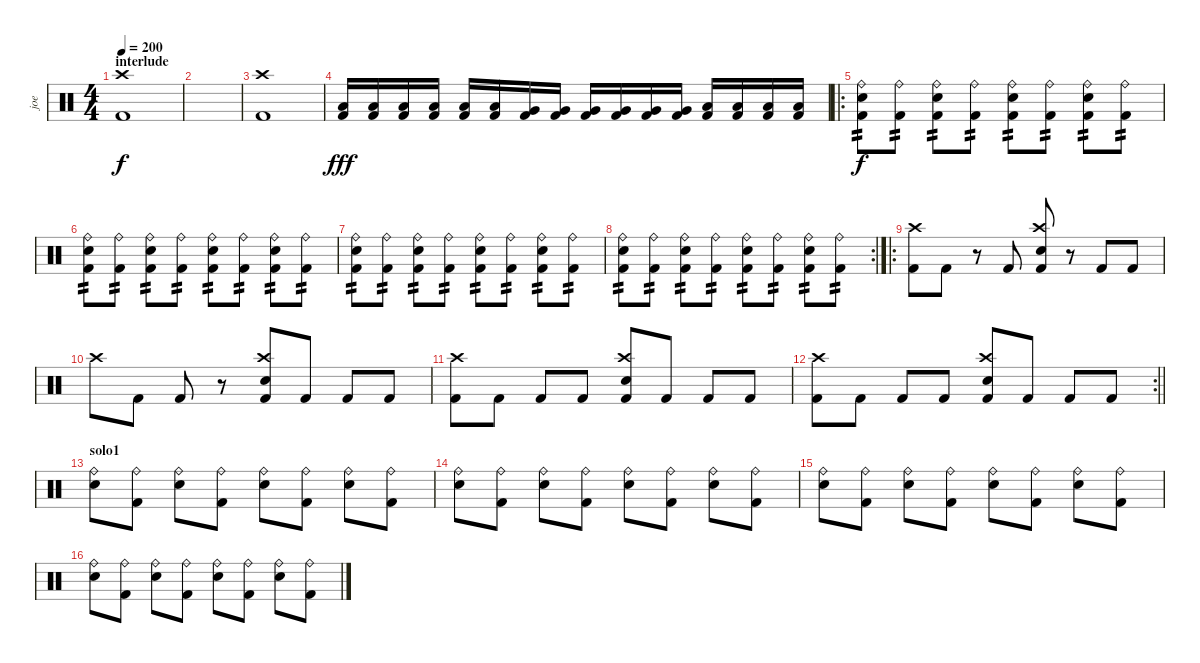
\track ("joe" "joe") {instrument percussion}
\staff {score}
\articulation defaults
\ts (4 4)
\section ("" "interlude")
\tempo 200
\clef neutral
\ks c
("Kick (hit) 2" "Crash high (hit)").1{dy f} |
|
("Crash high (hit)" "Kick (hit) 2").1 |
("Low Tom (hit)" "Kick (hit) 2").16{dy fff} ("Low Tom (hit)" "Kick (hit) 2").16 ("Low Tom (hit)" "Kick (hit) 2").16 ("Low Tom (hit)" "Kick (hit) 2").16 ("Low Tom (hit)" "Kick (hit) 2").16 ("Low Tom (hit)" "Kick (hit) 2").16 ("Very Low Tom (hit)" "Kick (hit) 2").16 ("Very Low Tom (hit)" "Kick (hit) 2").16 ("Very Low Tom (hit)" "Kick (hit) 2").16 ("Very Low Tom (hit)" "Kick (hit) 2").16 ("Very Low Tom (hit)" "Kick (hit) 2").16 ("Very Low Tom (hit)" "Kick (hit) 2").16 ("Low Floor Tom (hit)" "Kick (hit) 2").16 ("Low Floor Tom (hit)" "Kick (hit) 2").16 ("Low Floor Tom (hit)" "Kick (hit) 2").16 ("Low Floor Tom (hit)" "Kick (hit) 2").16 |
\ro
("Ride (bell)" "Snare (hit) 2" "Kick (hit) 2").8{tp 2 dy f} ("Ride (bell)" "Kick (hit) 2").8{tp 2} ("Ride (bell)" "Snare (hit) 2" "Kick (hit) 2").8{tp 2} ("Ride (bell)" "Kick (hit) 2").8{tp 2} ("Ride (bell)" "Snare (hit) 2" "Kick (hit) 2").8{tp 2} ("Ride (bell)" "Kick (hit) 2").8{tp 2} ("Ride (bell)" "Snare (hit) 2" "Kick (hit) 2").8{tp 2} ("Ride (bell)" "Kick (hit) 2").8{tp 2} |
("Ride (bell)" "Snare (hit) 2" "Kick (hit) 2").8{tp 2} ("Ride (bell)" "Kick (hit) 2").8{tp 2} ("Ride (bell)" "Snare (hit) 2" "Kick (hit) 2").8{tp 2} ("Ride (bell)" "Kick (hit) 2").8{tp 2} ("Ride (bell)" "Snare (hit) 2" "Kick (hit) 2").8{tp 2} ("Ride (bell)" "Kick (hit) 2").8{tp 2} ("Ride (bell)" "Snare (hit) 2" "Kick (hit) 2").8{tp 2} ("Ride (bell)" "Kick (hit) 2").8{tp 2} |
("Ride (bell)" "Snare (hit) 2" "Kick (hit) 2").8{tp 2} ("Ride (bell)" "Kick (hit) 2").8{tp 2} ("Ride (bell)" "Snare (hit) 2" "Kick (hit) 2").8{tp 2} ("Ride (bell)" "Kick (hit) 2").8{tp 2} ("Ride (bell)" "Snare (hit) 2" "Kick (hit) 2").8{tp 2} ("Ride (bell)" "Kick (hit) 2").8{tp 2} ("Ride (bell)" "Snare (hit) 2" "Kick (hit) 2").8{tp 2} ("Ride (bell)" "Kick (hit) 2").8{tp 2} |
\rc 2
("Ride (bell)" "Snare (hit) 2" "Kick (hit) 2").8{tp 2} ("Ride (bell)" "Kick (hit) 2").8{tp 2} ("Ride (bell)" "Snare (hit) 2" "Kick (hit) 2").8{tp 2} ("Ride (bell)" "Kick (hit) 2").8{tp 2} ("Ride (bell)" "Snare (hit) 2" "Kick (hit) 2").8{tp 2} ("Ride (bell)" "Kick (hit) 2").8{tp 2} ("Ride (bell)" "Snare (hit) 2" "Kick (hit) 2").8{tp 2} ("Ride (bell)" "Kick (hit) 2").8{tp 2} |
\ro
("Crash high (hit)" "Kick (hit) 2").8 "Kick (hit) 2".8 r.8 "Kick (hit) 2".8 ("Crash high (hit)" "Snare (hit) 2" "Kick (hit) 2").8 r.8 "Kick (hit) 2".8 "Kick (hit) 2".8 |
"Crash high (hit)".8 "Kick (hit) 2".8 "Kick (hit) 2".8 r.8 ("Crash high (hit)" "Snare (hit) 2" "Kick (hit) 2").8 "Kick (hit) 2".8 "Kick (hit) 2".8 "Kick (hit) 2".8 |
("Crash high (hit)" "Kick (hit) 2").8 "Kick (hit) 2".8 "Kick (hit) 2".8 "Kick (hit) 2".8 ("Crash high (hit)" "Snare (hit) 2" "Kick (hit) 2").8 "Kick (hit) 2".8 "Kick (hit) 2".8 "Kick (hit) 2".8 |
\rc 2
\barLineRight lightlight
("Crash high (hit)" "Kick (hit) 2").8 "Kick (hit) 2".8 "Kick (hit) 2".8 "Kick (hit) 2".8 ("Crash high (hit)" "Snare (hit) 2" "Kick (hit) 2").8 "Kick (hit) 2".8 "Kick (hit) 2".8 "Kick (hit) 2".8 |
\section ("" "solo1")
("Ride (bell)" "Snare (hit) 2").8 ("Ride (bell)" "Kick (hit) 2").8 ("Ride (bell)" "Snare (hit) 2").8 ("Ride (bell)" "Kick (hit) 2").8 ("Ride (bell)" "Snare (hit) 2").8 ("Ride (bell)" "Kick (hit) 2").8 ("Ride (bell)" "Snare (hit) 2").8 ("Ride (bell)" "Kick (hit) 2").8 |
("Ride (bell)" "Snare (hit) 2").8 ("Ride (bell)" "Kick (hit) 2").8 ("Ride (bell)" "Snare (hit) 2").8 ("Ride (bell)" "Kick (hit) 2").8 ("Ride (bell)" "Snare (hit) 2").8 ("Ride (bell)" "Kick (hit) 2").8 ("Ride (bell)" "Snare (hit) 2").8 ("Ride (bell)" "Kick (hit) 2").8 |
("Ride (bell)" "Snare (hit) 2").8 ("Ride (bell)" "Kick (hit) 2").8 ("Ride (bell)" "Snare (hit) 2").8 ("Ride (bell)" "Kick (hit) 2").8 ("Ride (bell)" "Snare (hit) 2").8 ("Ride (bell)" "Kick (hit) 2").8 ("Ride (bell)" "Snare (hit) 2").8 ("Ride (bell)" "Kick (hit) 2").8 |
("Ride (bell)" "Snare (hit) 2").8 ("Ride (bell)" "Kick (hit) 2").8 ("Ride (bell)" "Snare (hit) 2").8 ("Ride (bell)" "Kick (hit) 2").8 ("Ride (bell)" "Snare (hit) 2").8 ("Ride (bell)" "Kick (hit) 2").8 ("Ride (bell)" "Snare (hit) 2").8 ("Ride (bell)" "Kick (hit) 2").8
